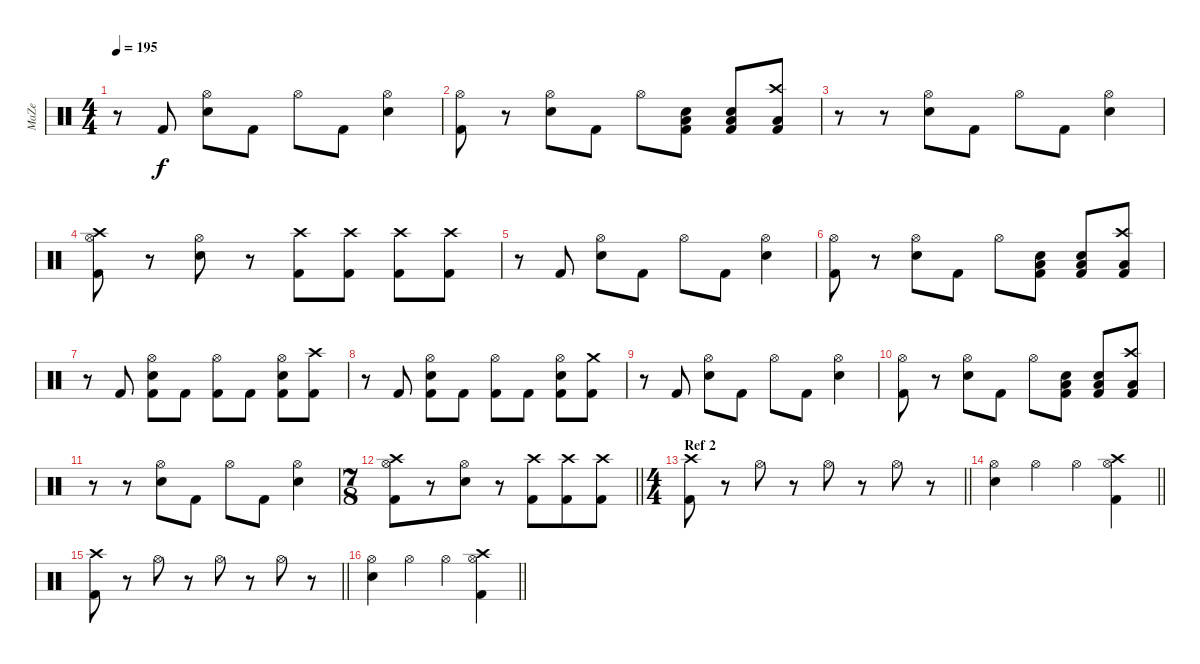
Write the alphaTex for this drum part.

\track ("MaZe" "MaZe") {instrument percussion}
\staff {score}
\articulation defaults
\ts (4 4)
\tempo 195
\clef neutral
\ks c
r.8{dy f} "Kick (hit) 2".8 ("Snare (hit) 2" "Hi-Hat (open)").8 "Kick (hit) 2".8 "Hi-Hat (open)".8 "Kick (hit) 2".8 ("Snare (hit) 2" "Hi-Hat (open)").4 |
("Hi-Hat (open)" "Kick (hit) 2").8 r.8 ("Snare (hit) 2" "Hi-Hat (open)").8 "Kick (hit) 2".8 "Hi-Hat (open)".8 ("Snare (hit) 2" "Low Tom (hit)" "Kick (hit) 2").8 ("Snare (hit) 2" "Low Tom (hit)" "Kick (hit) 2").8 ("Crash high (hit)" "Low Floor Tom (hit)" "Kick (hit) 2").8 |
r.8 r.8 ("Snare (hit) 2" "Hi-Hat (open)").8 "Kick (hit) 2".8 "Hi-Hat (open)".8 "Kick (hit) 2".8 ("Snare (hit) 2" "Hi-Hat (open)").4 |
("Crash high (hit)" "Hi-Hat (open)" "Kick (hit) 2").8 r.8 ("Snare (hit) 2" "Hi-Hat (open)").8 r.8 ("Crash high (hit)" "Kick (hit) 2").8 ("Crash high (hit)" "Kick (hit) 2").8 ("Crash high (hit)" "Kick (hit) 2").8 ("Crash high (hit)" "Kick (hit) 2").8 |
r.8 "Kick (hit) 2".8 ("Snare (hit) 2" "Hi-Hat (open)").8 "Kick (hit) 2".8 "Hi-Hat (open)".8 "Kick (hit) 2".8 ("Snare (hit) 2" "Hi-Hat (open)").4 |
("Hi-Hat (open)" "Kick (hit) 2").8 r.8 ("Snare (hit) 2" "Hi-Hat (open)").8 "Kick (hit) 2".8 "Hi-Hat (open)".8 ("Snare (hit) 2" "Low Tom (hit)" "Kick (hit) 2").8 ("Snare (hit) 2" "Low Tom (hit)" "Kick (hit) 2").8 ("Crash high (hit)" "Low Floor Tom (hit)" "Kick (hit) 2").8 |
r.8 "Kick (hit) 2".8 ("Snare (hit) 2" "Hi-Hat (open)" "Kick (hit) 2").8 "Kick (hit) 2".8 ("Hi-Hat (open)" "Kick (hit) 2").8 "Kick (hit) 2".8 ("Snare (hit) 2" "Hi-Hat (open)" "Kick (hit) 2").8 ("Crash high (hit)" "Kick (hit) 2").8 |
r.8 "Kick (hit) 2".8 ("Snare (hit) 2" "Hi-Hat (open)" "Kick (hit) 2").8 "Kick (hit) 2".8 ("Hi-Hat (open)" "Kick (hit) 2").8 "Kick (hit) 2".8 ("Snare (hit) 2" "Hi-Hat (open)" "Kick (hit) 2").8 ("Crash medium (hit)" "Kick (hit) 2").8 |
r.8 "Kick (hit) 2".8 ("Snare (hit) 2" "Hi-Hat (open)").8 "Kick (hit) 2".8 "Hi-Hat (open)".8 "Kick (hit) 2".8 ("Snare (hit) 2" "Hi-Hat (open)").4 |
("Hi-Hat (open)" "Kick (hit) 2").8 r.8 ("Snare (hit) 2" "Hi-Hat (open)").8 "Kick (hit) 2".8 "Hi-Hat (open)".8 ("Snare (hit) 2" "Low Tom (hit)" "Kick (hit) 2").8 ("Snare (hit) 2" "Low Tom (hit)" "Kick (hit) 2").8 ("Crash high (hit)" "Low Floor Tom (hit)" "Kick (hit) 2").8 |
r.8 r.8 ("Snare (hit) 2" "Hi-Hat (open)").8 "Kick (hit) 2".8 "Hi-Hat (open)".8 "Kick (hit) 2".8 ("Snare (hit) 2" "Hi-Hat (open)").4 |
\ts (7 8)
\barLineRight lightlight
("Crash high (hit)" "Hi-Hat (open)" "Kick (hit) 2").8 r.8 ("Snare (hit) 2" "Hi-Hat (open)").8 r.8 ("Crash high (hit)" "Kick (hit) 2").8 ("Crash high (hit)" "Kick (hit) 2").8 ("Crash high (hit)" "Kick (hit) 2").8 |
\ts (4 4)
\section ("" "Ref 2")
\barLineRight lightlight
("Crash high (hit)" "Kick (hit) 2").8 r.8 "Hi-Hat (open)".8 r.8 "Hi-Hat (open)".8 r.8 "Hi-Hat (open)".8 r.8 |
\barLineRight lightlight
("Snare (hit) 2" "Hi-Hat (open)").4 "Hi-Hat (open)".4 "Hi-Hat (open)".4 ("Crash high (hit)" "Hi-Hat (open)" "Kick (hit) 2").4 |
\barLineRight lightlight
("Crash high (hit)" "Kick (hit) 2").8 r.8 "Hi-Hat (open)".8 r.8 "Hi-Hat (open)".8 r.8 "Hi-Hat (open)".8 r.8 |
\barLineRight lightlight
("Snare (hit) 2" "Hi-Hat (open)").4 "Hi-Hat (open)".4 "Hi-Hat (open)".4 ("Crash high (hit)" "Hi-Hat (open)" "Kick (hit) 2").4
